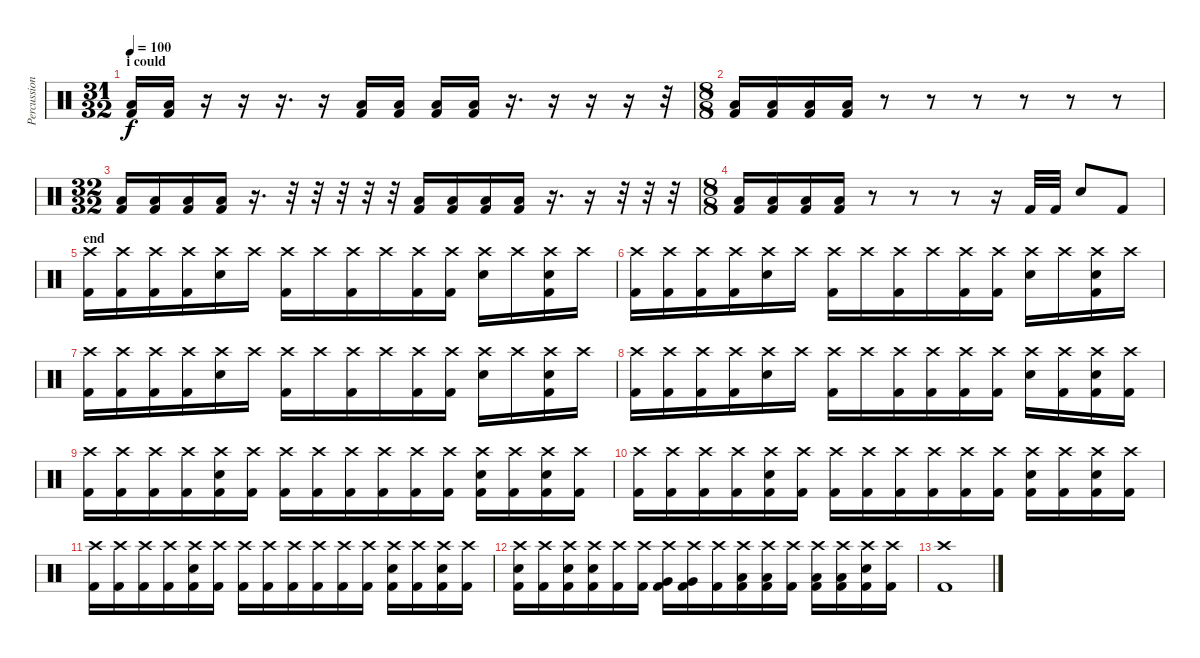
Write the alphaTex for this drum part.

\track ("Percussion" "Percussion") {instrument percussion}
\staff {score}
\articulation defaults
\ts (31 32)
\section ("" "i could")
\tempo 100
\clef neutral
\ks c
("Low Tom (hit)" "Kick (hit) 2").16{dy f} ("Low Tom (hit)" "Kick (hit) 2").16 r.16 r.16 r.16{d} r.16 ("Low Tom (hit)" "Kick (hit) 2").16 ("Kick (hit) 2" "Low Tom (hit)").16 ("Low Tom (hit)" "Kick (hit) 2").16 ("Low Tom (hit)" "Kick (hit) 2").16 r.16{d} r.16 r.16 r.16 r.32 |
\ts (8 8)
("Low Tom (hit)" "Kick (hit) 2").16 ("Low Tom (hit)" "Kick (hit) 2").16 ("Low Tom (hit)" "Kick (hit) 2").16 ("Low Tom (hit)" "Kick (hit) 2").16 r.8 r.8 r.8 r.8 r.8 r.8 |
\ts (32 32)
("Low Tom (hit)" "Kick (hit) 2").16 ("Low Tom (hit)" "Kick (hit) 2").16 ("Low Tom (hit)" "Kick (hit) 2").16 ("Low Tom (hit)" "Kick (hit) 2").16 r.16{d} r.32 r.32 r.32 r.32 r.32 ("Low Tom (hit)" "Kick (hit) 2").16 ("Kick (hit) 2" "Low Tom (hit)").16 ("Low Tom (hit)" "Kick (hit) 2").16 ("Low Tom (hit)" "Kick (hit) 2").16 r.16{d} r.16 r.32 r.32 r.32 |
\ts (8 8)
("Low Tom (hit)" "Kick (hit) 2").16 ("Low Tom (hit)" "Kick (hit) 2").16 ("Low Tom (hit)" "Kick (hit) 2").16 ("Low Tom (hit)" "Kick (hit) 2").16 r.8 r.8 r.8 r.16 "Kick (hit) 2".32 "Kick (hit) 2".32 "Electric Snare (hit)".8 "Kick (hit) 2".8 |
\section ("" "end")
("Crash high (hit)" "Kick (hit) 2").16 ("Crash high (hit)"{x} "Kick (hit) 2").16 ("Crash high (hit)"{x} "Kick (hit) 2").16 ("Crash high (hit)"{x} "Kick (hit) 2").16 ("Crash high (hit)" "Electric Snare (hit)").16 "Crash high (hit)"{x}.16 ("Crash high (hit)"{x} "Kick (hit) 2").16 "Crash high (hit)"{x}.16 ("Crash high (hit)" "Kick (hit) 2").16 "Crash high (hit)"{x}.16 ("Crash high (hit)"{x} "Kick (hit) 2").16 ("Crash high (hit)"{x} "Kick (hit) 2").16 ("Crash high (hit)" "Electric Snare (hit)").16 "Crash high (hit)"{x}.16 ("Crash high (hit)"{x} "Snare (hit)" "Kick (hit) 2").16 "Crash high (hit)"{x}.16 |
("Crash high (hit)" "Kick (hit) 2").16 ("Crash high (hit)"{x} "Kick (hit) 2").16 ("Crash high (hit)"{x} "Kick (hit) 2").16 ("Crash high (hit)"{x} "Kick (hit) 2").16 ("Crash high (hit)" "Electric Snare (hit)").16 "Crash high (hit)"{x}.16 ("Crash high (hit)"{x} "Kick (hit) 2").16 "Crash high (hit)"{x}.16 ("Crash high (hit)" "Kick (hit) 2").16 "Crash high (hit)"{x}.16 ("Crash high (hit)"{x} "Kick (hit) 2").16 ("Crash high (hit)"{x} "Kick (hit) 2").16 ("Crash high (hit)" "Electric Snare (hit)").16 "Crash high (hit)"{x}.16 ("Crash high (hit)"{x} "Snare (hit)" "Kick (hit) 2").16 "Crash high (hit)"{x}.16 |
("Crash high (hit)" "Kick (hit) 2").16 ("Crash high (hit)"{x} "Kick (hit) 2").16 ("Crash high (hit)"{x} "Kick (hit) 2").16 ("Crash high (hit)"{x} "Kick (hit) 2").16 ("Crash high (hit)" "Electric Snare (hit)").16 "Crash high (hit)"{x}.16 ("Crash high (hit)"{x} "Kick (hit) 2").16 "Crash high (hit)"{x}.16 ("Crash high (hit)" "Kick (hit) 2").16 "Crash high (hit)"{x}.16 ("Crash high (hit)"{x} "Kick (hit) 2").16 ("Crash high (hit)"{x} "Kick (hit) 2").16 ("Crash high (hit)" "Electric Snare (hit)").16 "Crash high (hit)"{x}.16 ("Crash high (hit)"{x} "Snare (hit)" "Kick (hit) 2").16 "Crash high (hit)"{x}.16 |
("Crash high (hit)" "Kick (hit) 2").16 ("Crash high (hit)"{x} "Kick (hit) 2").16 ("Crash high (hit)"{x} "Kick (hit) 2").16 ("Crash high (hit)"{x} "Kick (hit) 2").16 ("Crash high (hit)" "Electric Snare (hit)").16 "Crash high (hit)"{x}.16 ("Crash high (hit)"{x} "Kick (hit) 2").16 "Crash high (hit)"{x}.16 ("Crash high (hit)" "Kick (hit) 2").16 ("Crash high (hit)"{x} "Kick (hit) 2").16 ("Crash high (hit)"{x} "Kick (hit) 2").16 ("Crash high (hit)"{x} "Kick (hit) 2").16 ("Crash high (hit)" "Electric Snare (hit)").16 ("Crash high (hit)"{x} "Kick (hit) 2").16 ("Crash high (hit)"{x} "Snare (hit)" "Kick (hit) 2").16 ("Crash high (hit)"{x} "Kick (hit) 2").16 |
("Crash high (hit)" "Kick (hit) 2").16 ("Crash high (hit)"{x} "Kick (hit) 2").16 ("Crash high (hit)"{x} "Kick (hit) 2").16 ("Crash high (hit)"{x} "Kick (hit) 2").16 ("Crash high (hit)" "Electric Snare (hit)" "Kick (hit) 2").16 ("Crash high (hit)"{x} "Kick (hit) 2").16 ("Crash high (hit)"{x} "Kick (hit) 2").16 ("Crash high (hit)"{x} "Kick (hit) 2").16 ("Crash high (hit)" "Kick (hit) 2").16 ("Crash high (hit)"{x} "Kick (hit) 2").16 ("Crash high (hit)"{x} "Kick (hit) 2").16 ("Crash high (hit)"{x} "Kick (hit) 2").16 ("Crash high (hit)" "Electric Snare (hit)" "Kick (hit) 2").16 ("Crash high (hit)"{x} "Kick (hit) 2").16 ("Crash high (hit)"{x} "Snare (hit)" "Kick (hit) 2").16 ("Crash high (hit)"{x} "Kick (hit) 2").16 |
("Crash high (hit)" "Kick (hit) 2").16 ("Crash high (hit)"{x} "Kick (hit) 2").16 ("Crash high (hit)"{x} "Kick (hit) 2").16 ("Crash high (hit)"{x} "Kick (hit) 2").16 ("Crash high (hit)" "Electric Snare (hit)" "Kick (hit) 2").16 ("Crash high (hit)"{x} "Kick (hit) 2").16 ("Crash high (hit)"{x} "Kick (hit) 2").16 ("Crash high (hit)"{x} "Kick (hit) 2").16 ("Crash high (hit)" "Kick (hit) 2").16 ("Crash high (hit)"{x} "Kick (hit) 2").16 ("Crash high (hit)"{x} "Kick (hit) 2").16 ("Crash high (hit)"{x} "Kick (hit) 2").16 ("Crash high (hit)" "Electric Snare (hit)" "Kick (hit) 2").16 ("Crash high (hit)"{x} "Kick (hit) 2").16 ("Crash high (hit)"{x} "Snare (hit)" "Kick (hit) 2").16 ("Crash high (hit)"{x} "Kick (hit) 2").16 |
("Crash high (hit)" "Kick (hit) 2").16 ("Crash high (hit)"{x} "Kick (hit) 2").16 ("Crash high (hit)"{x} "Kick (hit) 2").16 ("Crash high (hit)"{x} "Kick (hit) 2").16 ("Crash high (hit)" "Electric Snare (hit)" "Kick (hit) 2").16 ("Crash high (hit)"{x} "Kick (hit) 2").16 ("Crash high (hit)"{x} "Kick (hit) 2").16 ("Crash high (hit)"{x} "Kick (hit) 2").16 ("Crash high (hit)" "Kick (hit) 2").16 ("Crash high (hit)"{x} "Kick (hit) 2").16 ("Crash high (hit)"{x} "Kick (hit) 2").16 ("Crash high (hit)"{x} "Kick (hit) 2").16 ("Crash high (hit)" "Electric Snare (hit)" "Kick (hit) 2").16 ("Crash high (hit)"{x} "Kick (hit) 2").16 ("Crash high (hit)"{x} "Snare (hit)" "Kick (hit) 2").16 ("Crash high (hit)"{x} "Kick (hit) 2").16 |
("Crash high (hit)" "Electric Snare (hit)" "Kick (hit) 2").16 ("Crash high (hit)"{x} "Kick (hit) 2").16 ("Crash high (hit)"{x} "Electric Snare (hit)" "Kick (hit) 2").16 ("Crash high (hit)"{x} "Electric Snare (hit)" "Kick (hit) 2").16 ("Crash high (hit)" "Kick (hit) 2").16 ("Crash high (hit)"{x} "Kick (hit) 2").16 ("Crash high (hit)"{x} "Very Low Tom (hit)" "Kick (hit) 2").16 ("Crash high (hit)"{x} "Very Low Tom (hit)" "Kick (hit) 2").16 ("Crash high (hit)" "Kick (hit) 2").16 ("Crash high (hit)"{x} "Low Tom (hit)" "Kick (hit) 2").16 ("Crash high (hit)"{x} "Low Tom (hit)" "Kick (hit) 2").16 ("Crash high (hit)"{x} "Kick (hit) 2").16 ("Crash high (hit)" "Low Floor Tom (hit)" "Kick (hit) 2").16 ("Crash high (hit)"{x} "Low Floor Tom (hit)" "Kick (hit) 2").16 ("Crash high (hit)"{x} "Snare (hit)" "Kick (hit) 2").16 ("Crash high (hit)"{x} "Kick (hit) 2").16 |
("Crash high (hit)" "Kick (hit) 2").1
